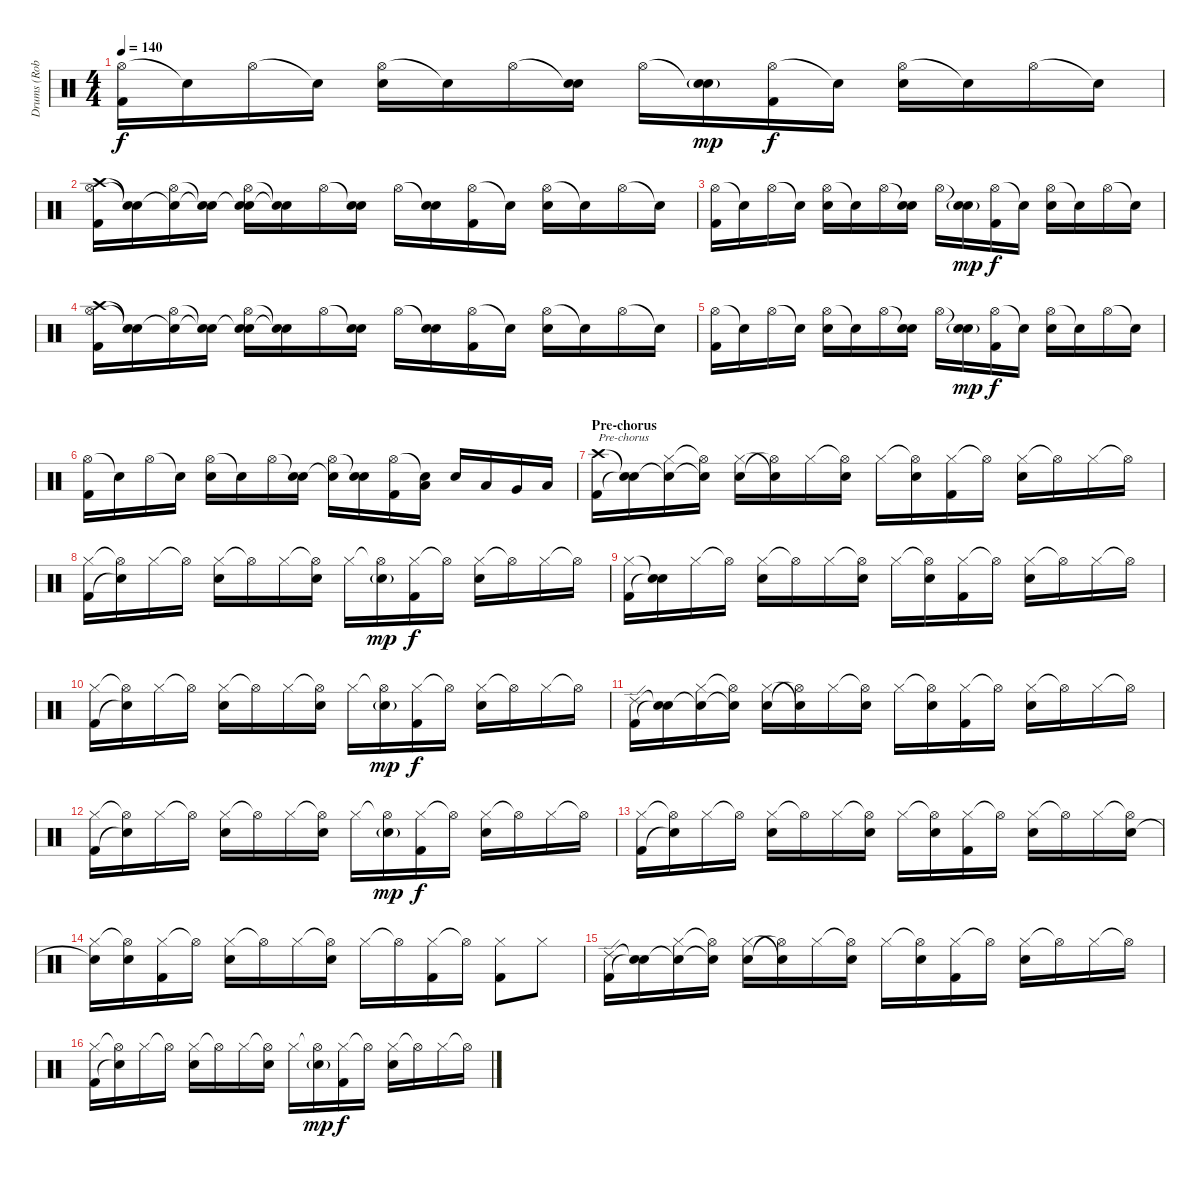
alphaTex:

\track ("Drums (Rob Bourdon)" "Drums (Rob") {instrument percussion}
\staff {score}
\articulation defaults
\ts (4 4)
\tempo 140
\clef neutral
\ks c
("Hi-Hat (open)" "Kick (hit) 2").16{dy f} "Snare (hit)"{t}.16 "Hi-Hat (open)".16 "Snare (hit)"{t}.16 ("Hi-Hat (open)" "Electric Snare (hit)").16 "Snare (hit)"{t}.16 "Hi-Hat (open)".16 ("Snare (hit)"{t} "Electric Snare (hit)").16 "Hi-Hat (open)".16 ("Snare (hit)"{t} "Electric Snare (hit)"{g}).16{dy mp} ("Hi-Hat (open)" "Kick (hit) 2").16{dy f} "Snare (hit)"{t}.16 ("Hi-Hat (open)" "Electric Snare (hit)").16 "Snare (hit)"{t}.16 "Hi-Hat (open)".16 "Snare (hit)"{t}.16 |
("Crash high (hit)" "Hi-Hat (open)" "Kick (hit) 2").16{volume 14} ("Snare (hit)"{t} "Snare (hit)"{t}).16 ("Snare (hit)"{t} "Hi-Hat (open)").16 ("Snare (hit)"{t} "Snare (hit)"{t}).16 ("Snare (hit)"{t} "Hi-Hat (open)" "Electric Snare (hit)").16 ("Snare (hit)"{t} "Snare (hit)"{t}).16 "Hi-Hat (open)".16 ("Snare (hit)"{t} "Electric Snare (hit)").16 "Hi-Hat (open)".16 ("Snare (hit)"{t} "Electric Snare (hit)").16 ("Hi-Hat (open)" "Kick (hit) 2").16 "Snare (hit)"{t}.16 ("Hi-Hat (open)" "Electric Snare (hit)").16 "Snare (hit)"{t}.16 "Hi-Hat (open)".16 "Snare (hit)"{t}.16 |
("Hi-Hat (open)" "Kick (hit) 2").16 "Snare (hit)"{t}.16 "Hi-Hat (open)".16 "Snare (hit)"{t}.16 ("Hi-Hat (open)" "Electric Snare (hit)").16 "Snare (hit)"{t}.16 "Hi-Hat (open)".16 ("Snare (hit)"{t} "Electric Snare (hit)").16 "Hi-Hat (open)".16 ("Snare (hit)"{t} "Electric Snare (hit)"{g}).16{dy mp} ("Hi-Hat (open)" "Kick (hit) 2").16{dy f} "Snare (hit)"{t}.16 ("Hi-Hat (open)" "Electric Snare (hit)").16 "Snare (hit)"{t}.16 "Hi-Hat (open)".16 "Snare (hit)"{t}.16 |
("Crash high (hit)" "Hi-Hat (open)" "Kick (hit) 2").16{volume 14} ("Snare (hit)"{t} "Snare (hit)"{t}).16 ("Snare (hit)"{t} "Hi-Hat (open)").16 ("Snare (hit)"{t} "Snare (hit)"{t}).16 ("Snare (hit)"{t} "Hi-Hat (open)" "Electric Snare (hit)").16 ("Snare (hit)"{t} "Snare (hit)"{t}).16 "Hi-Hat (open)".16 ("Snare (hit)"{t} "Electric Snare (hit)").16 "Hi-Hat (open)".16 ("Snare (hit)"{t} "Electric Snare (hit)").16 ("Hi-Hat (open)" "Kick (hit) 2").16 "Snare (hit)"{t}.16 ("Hi-Hat (open)" "Electric Snare (hit)").16 "Snare (hit)"{t}.16 "Hi-Hat (open)".16 "Snare (hit)"{t}.16 |
("Hi-Hat (open)" "Kick (hit) 2").16 "Snare (hit)"{t}.16 "Hi-Hat (open)".16 "Snare (hit)"{t}.16 ("Hi-Hat (open)" "Electric Snare (hit)").16 "Snare (hit)"{t}.16 "Hi-Hat (open)".16 ("Snare (hit)"{t} "Electric Snare (hit)").16 "Hi-Hat (open)".16 ("Snare (hit)"{t} "Electric Snare (hit)"{g}).16{dy mp} ("Hi-Hat (open)" "Kick (hit) 2").16{dy f} "Snare (hit)"{t}.16 ("Hi-Hat (open)" "Electric Snare (hit)").16 "Snare (hit)"{t}.16 "Hi-Hat (open)".16 "Snare (hit)"{t}.16 |
("Hi-Hat (open)" "Kick (hit) 2").16 "Snare (hit)"{t}.16 "Hi-Hat (open)".16 "Snare (hit)"{t}.16 ("Hi-Hat (open)" "Electric Snare (hit)").16 "Snare (hit)"{t}.16 "Hi-Hat (open)".16 ("Snare (hit)"{t} "Electric Snare (hit)").16 ("Hi-Hat (open)" "Electric Snare (hit)"{t}).16 ("Snare (hit)"{t} "Electric Snare (hit)").16 ("Hi-Hat (open)" "Kick (hit) 2").16 ("Snare (hit)"{t} "Low Tom (hit)").16 "Electric Snare (hit)".16 "Low Tom (hit)".16 "Very Low Tom (hit)".16 "Low Floor Tom (hit)".16 |
\section ("" "Pre-chorus")
("Crash high (hit)" "Kick (hit) 2").16{txt "Pre-chorus" volume 12} ("Snare (hit)"{t} "Snare (hit)"{t}).16 ("Snare (hit)"{t} "Hi-Hat (closed)").16 ("Snare (hit)"{t} "Hi-Hat (open)"{t}).16 ("Hi-Hat (closed)" "Electric Snare (hit)").16 ("Snare (hit)"{t} "Hi-Hat (open)"{t}).16 "Hi-Hat (closed)".16 ("Hi-Hat (open)"{t} "Electric Snare (hit)").16 "Hi-Hat (closed)".16 ("Hi-Hat (open)"{t} "Electric Snare (hit)").16 ("Hi-Hat (closed)" "Kick (hit) 2").16 "Hi-Hat (open)"{t}.16 ("Hi-Hat (closed)" "Electric Snare (hit)").16 "Hi-Hat (open)"{t}.16 "Hi-Hat (closed)".16 "Hi-Hat (open)"{t}.16 |
("Hi-Hat (closed)" "Kick (hit) 2").16{volume 12} ("Hi-Hat (open)"{t} "Snare (hit)"{t}).16 "Hi-Hat (closed)".16 "Hi-Hat (open)"{t}.16 ("Hi-Hat (closed)" "Electric Snare (hit)").16 "Hi-Hat (open)"{t}.16 "Hi-Hat (closed)".16 ("Hi-Hat (open)"{t} "Electric Snare (hit)").16 "Hi-Hat (closed)".16 ("Hi-Hat (open)"{t} "Electric Snare (hit)"{g}).16{dy mp} ("Hi-Hat (closed)" "Kick (hit) 2").16{dy f} "Hi-Hat (open)"{t}.16 ("Hi-Hat (closed)" "Electric Snare (hit)").16 "Hi-Hat (open)"{t}.16 "Hi-Hat (closed)".16 "Hi-Hat (open)"{t}.16 |
("Hi-Hat (closed)" "Kick (hit) 2").16{volume 12} ("Snare (hit)"{t} "Snare (hit)"{t}).16 "Hi-Hat (closed)".16 "Hi-Hat (open)"{t}.16 ("Hi-Hat (closed)" "Electric Snare (hit)").16 "Hi-Hat (open)"{t}.16 "Hi-Hat (closed)".16 ("Hi-Hat (open)"{t} "Electric Snare (hit)").16 "Hi-Hat (closed)".16 ("Hi-Hat (open)"{t} "Electric Snare (hit)").16 ("Hi-Hat (closed)" "Kick (hit) 2").16 "Hi-Hat (open)"{t}.16 ("Hi-Hat (closed)" "Electric Snare (hit)").16 "Hi-Hat (open)"{t}.16 "Hi-Hat (closed)".16 "Hi-Hat (open)"{t}.16 |
("Hi-Hat (closed)" "Kick (hit) 2").16{volume 12} ("Hi-Hat (open)"{t} "Snare (hit)"{t}).16 "Hi-Hat (closed)".16 "Hi-Hat (open)"{t}.16 ("Hi-Hat (closed)" "Electric Snare (hit)").16 "Hi-Hat (open)"{t}.16 "Hi-Hat (closed)".16 ("Hi-Hat (open)"{t} "Electric Snare (hit)").16 "Hi-Hat (closed)".16 ("Hi-Hat (open)"{t} "Electric Snare (hit)"{g}).16{dy mp} ("Hi-Hat (closed)" "Kick (hit) 2").16{dy f} "Hi-Hat (open)"{t}.16 ("Hi-Hat (closed)" "Electric Snare (hit)").16 "Hi-Hat (open)"{t}.16 "Hi-Hat (closed)".16 "Hi-Hat (open)"{t}.16 |
("Ride (edge) 2" "Kick (hit) 2").16{volume 12} ("Snare (hit)"{t} "Snare (hit)"{t}).16 ("Snare (hit)"{t} "Hi-Hat (closed)").16 ("Snare (hit)"{t} "Hi-Hat (open)"{t}).16 ("Hi-Hat (closed)" "Electric Snare (hit)").16 ("Snare (hit)"{t} "Hi-Hat (open)"{t}).16 "Hi-Hat (closed)".16 ("Hi-Hat (open)"{t} "Electric Snare (hit)").16 "Hi-Hat (closed)".16 ("Hi-Hat (open)"{t} "Electric Snare (hit)").16 ("Hi-Hat (closed)" "Kick (hit) 2").16 "Hi-Hat (open)"{t}.16 ("Hi-Hat (closed)" "Electric Snare (hit)").16 "Hi-Hat (open)"{t}.16 "Hi-Hat (closed)".16 "Hi-Hat (open)"{t}.16 |
("Hi-Hat (closed)" "Kick (hit) 2").16{volume 12} ("Hi-Hat (open)"{t} "Snare (hit)"{t}).16 "Hi-Hat (closed)".16 "Hi-Hat (open)"{t}.16 ("Hi-Hat (closed)" "Electric Snare (hit)").16 "Hi-Hat (open)"{t}.16 "Hi-Hat (closed)".16 ("Hi-Hat (open)"{t} "Electric Snare (hit)").16 "Hi-Hat (closed)".16 ("Hi-Hat (open)"{t} "Electric Snare (hit)"{g}).16{dy mp} ("Hi-Hat (closed)" "Kick (hit) 2").16{dy f} "Hi-Hat (open)"{t}.16 ("Hi-Hat (closed)" "Electric Snare (hit)").16 "Hi-Hat (open)"{t}.16 "Hi-Hat (closed)".16 "Hi-Hat (open)"{t}.16 |
("Hi-Hat (closed)" "Kick (hit) 2").16{volume 14} ("Hi-Hat (open)"{t} "Snare (hit)"{t}).16 "Hi-Hat (closed)".16 "Hi-Hat (open)"{t}.16 ("Hi-Hat (closed)" "Electric Snare (hit)").16 "Hi-Hat (open)"{t}.16 "Hi-Hat (closed)".16 ("Hi-Hat (open)"{t} "Electric Snare (hit)").16 "Hi-Hat (closed)".16 ("Hi-Hat (open)"{t} "Electric Snare (hit)").16 ("Hi-Hat (closed)" "Kick (hit) 2").16 "Hi-Hat (open)"{t}.16 ("Hi-Hat (closed)" "Electric Snare (hit)").16 "Hi-Hat (open)"{t}.16 "Hi-Hat (closed)".16 ("Hi-Hat (open)"{t} "Electric Snare (hit)").16 |
("Hi-Hat (closed)" "Snare (hit)"{t}).16{volume 14} ("Hi-Hat (open)"{t} "Electric Snare (hit)").16 ("Hi-Hat (closed)" "Kick (hit) 2").16 "Hi-Hat (open)"{t}.16 ("Hi-Hat (closed)" "Electric Snare (hit)").16 "Hi-Hat (open)"{t}.16 "Hi-Hat (closed)".16 ("Hi-Hat (open)"{t} "Electric Snare (hit)").16 "Hi-Hat (closed)".16 "Hi-Hat (open)"{t}.16 ("Hi-Hat (closed)" "Kick (hit) 2").16 "Hi-Hat (open)"{t}.16 ("Hi-Hat (closed)" "Kick (hit) 2").8 "Hi-Hat (closed)".8 |
("Ride (edge) 2" "Kick (hit) 2").16{volume 12} ("Snare (hit)"{t} "Snare (hit)"{t}).16 ("Snare (hit)"{t} "Hi-Hat (closed)").16 ("Snare (hit)"{t} "Hi-Hat (open)"{t}).16 ("Hi-Hat (closed)" "Electric Snare (hit)").16 ("Snare (hit)"{t} "Hi-Hat (open)"{t}).16 "Hi-Hat (closed)".16 ("Hi-Hat (open)"{t} "Electric Snare (hit)").16 "Hi-Hat (closed)".16 ("Hi-Hat (open)"{t} "Electric Snare (hit)").16 ("Hi-Hat (closed)" "Kick (hit) 2").16 "Hi-Hat (open)"{t}.16 ("Hi-Hat (closed)" "Electric Snare (hit)").16 "Hi-Hat (open)"{t}.16 "Hi-Hat (closed)".16 "Hi-Hat (open)"{t}.16 |
("Hi-Hat (closed)" "Kick (hit) 2").16{volume 12} ("Hi-Hat (open)"{t} "Snare (hit)"{t}).16 "Hi-Hat (closed)".16 "Hi-Hat (open)"{t}.16 ("Hi-Hat (closed)" "Electric Snare (hit)").16 "Hi-Hat (open)"{t}.16 "Hi-Hat (closed)".16 ("Hi-Hat (open)"{t} "Electric Snare (hit)").16 "Hi-Hat (closed)".16 ("Hi-Hat (open)"{t} "Electric Snare (hit)"{g}).16{dy mp} ("Hi-Hat (closed)" "Kick (hit) 2").16{dy f} "Hi-Hat (open)"{t}.16 ("Hi-Hat (closed)" "Electric Snare (hit)").16 "Hi-Hat (open)"{t}.16 "Hi-Hat (closed)".16 "Hi-Hat (open)"{t}.16
